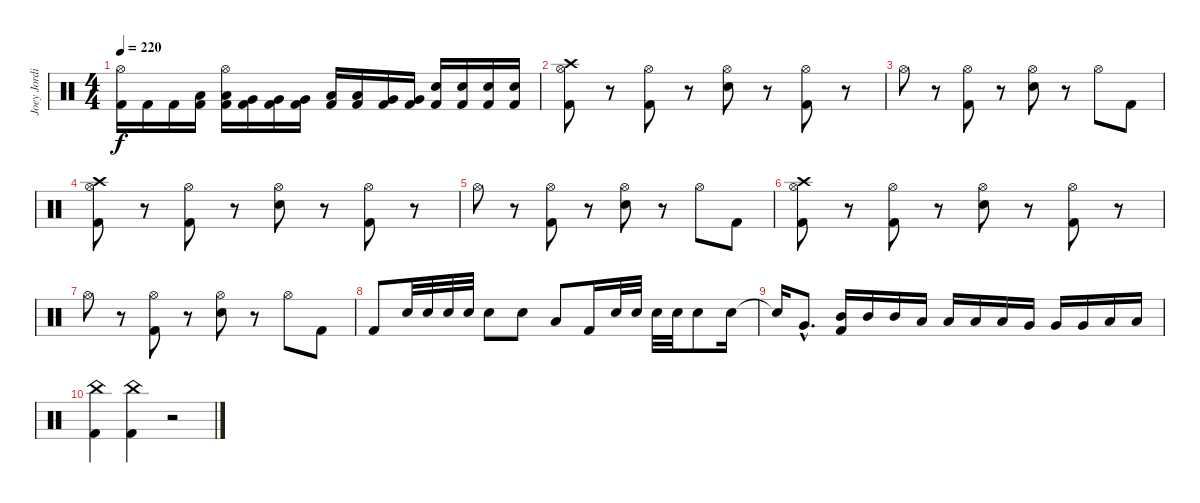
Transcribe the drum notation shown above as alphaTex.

\track ("Joey Jordison" "Joey Jordi") {instrument percussion}
\staff {score}
\articulation defaults
\ts (4 4)
\tempo 220
\clef neutral
\ks c
("Hi-Hat (open)" "Kick (hit) 2").16{dy f} "Kick (hit) 2".16 "Kick (hit) 2".16 ("Low Floor Tom (hit)" "Kick (hit) 2").16 ("Hi-Hat (open)" "Low Floor Tom (hit)" "Kick (hit) 2").16 ("Very Low Tom (hit)" "Kick (hit) 2").16 ("Very Low Tom (hit)" "Kick (hit) 2").16 ("Very Low Tom (hit)" "Kick (hit) 2").16 ("Low Tom (hit)" "Kick (hit) 2").16 ("Low Tom (hit)" "Kick (hit) 2").16 ("Very Low Tom (hit)" "Kick (hit) 2").16 ("Very Low Tom (hit)" "Kick (hit) 2").16 ("Electric Snare (hit)" "Kick (hit) 2").16 ("Electric Snare (hit)" "Kick (hit) 2").16 ("Electric Snare (hit)" "Kick (hit) 2").16 ("Electric Snare (hit)" "Kick (hit) 2").16 |
("Crash high (hit)" "Hi-Hat (open)" "Kick (hit) 2").8 r.8 ("Hi-Hat (open)" "Kick (hit) 2").8 r.8 ("Hi-Hat (open)" "Electric Snare (hit)").8 r.8 ("Hi-Hat (open)" "Kick (hit) 2").8 r.8 |
"Hi-Hat (open)".8 r.8 ("Hi-Hat (open)" "Kick (hit) 2").8 r.8 ("Hi-Hat (open)" "Electric Snare (hit)").8 r.8 "Hi-Hat (open)".8 "Kick (hit) 2".8 |
("Crash high (hit)" "Hi-Hat (open)" "Kick (hit) 2").8 r.8 ("Hi-Hat (open)" "Kick (hit) 2").8 r.8 ("Hi-Hat (open)" "Electric Snare (hit)").8 r.8 ("Hi-Hat (open)" "Kick (hit) 2").8 r.8 |
"Hi-Hat (open)".8 r.8 ("Hi-Hat (open)" "Kick (hit) 2").8 r.8 ("Hi-Hat (open)" "Electric Snare (hit)").8 r.8 "Hi-Hat (open)".8 "Kick (hit) 2".8 |
("Crash high (hit)" "Hi-Hat (open)" "Kick (hit) 2").8 r.8 ("Hi-Hat (open)" "Kick (hit) 2").8 r.8 ("Hi-Hat (open)" "Electric Snare (hit)").8 r.8 ("Hi-Hat (open)" "Kick (hit) 2").8 r.8 |
"Hi-Hat (open)".8 r.8 ("Hi-Hat (open)" "Kick (hit) 2").8 r.8 ("Hi-Hat (open)" "Electric Snare (hit)").8 r.8 "Hi-Hat (open)".8 "Kick (hit) 2".8 |
"Kick (hit) 2".8 "Electric Snare (hit)".32 "Electric Snare (hit)".32 "Electric Snare (hit)".32 "Electric Snare (hit)".32 "Electric Snare (hit)".8 "Electric Snare (hit)".8 "Low Tom (hit)".8 "Kick (hit) 2".16 "Electric Snare (hit)".32 "Electric Snare (hit)".32 "Electric Snare (hit)".32 "Electric Snare (hit)".32 "Electric Snare (hit)".8 "Electric Snare (hit)".16 |
"Electric Snare (hit)"{t}.16 "Very Low Tom (hit)"{hac}.8{d} ("Mid Tom (hit)" "Kick (hit) 2").16 "Mid Tom (hit)".16 "Mid Tom (hit)".16 "Low Tom (hit)".16 "Low Tom (hit)".16 "Low Tom (hit)".16 "Low Tom (hit)".16 "Very Low Tom (hit)".16 "Very Low Tom (hit)".16 "Very Low Tom (hit)".16 "Low Floor Tom (hit)".16 "Low Floor Tom (hit)".16 |
("China (hit)" "Kick (hit) 2").4 ("China (hit)" "Kick (hit) 2").4 r.2
